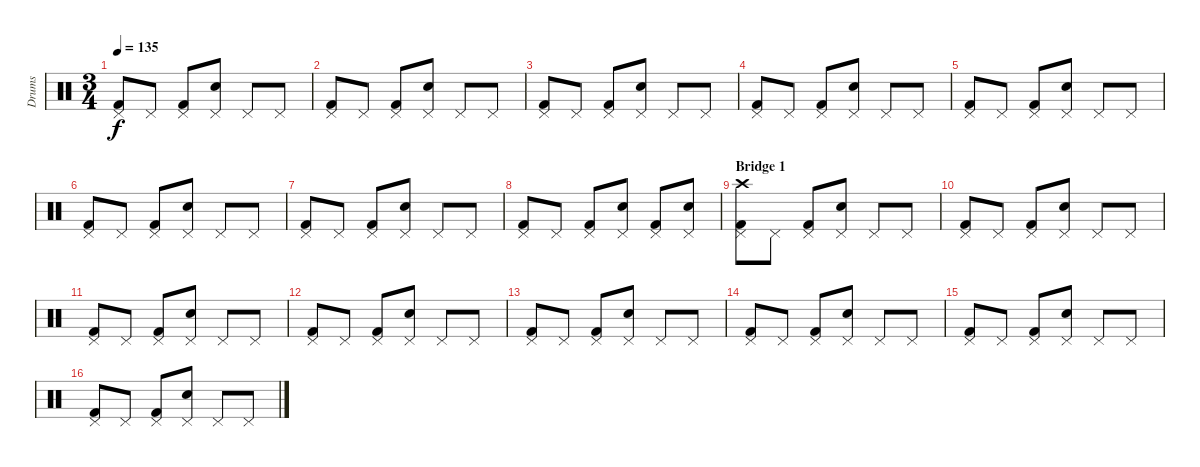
\track ("Drums" "Drums") {instrument percussion}
\staff {score}
\articulation defaults
\ts (3 4)
\tempo 135
\clef neutral
\ks c
("Pedal Hi-Hat (hit)" "Kick (hit) 2").8{dy f} "Pedal Hi-Hat (hit)".8 ("Pedal Hi-Hat (hit)" "Kick (hit) 2").8 ("Pedal Hi-Hat (hit)" "Snare (hit) 2").8 "Pedal Hi-Hat (hit)".8 "Pedal Hi-Hat (hit)".8 |
("Pedal Hi-Hat (hit)" "Kick (hit) 2").8 "Pedal Hi-Hat (hit)".8 ("Pedal Hi-Hat (hit)" "Kick (hit) 2").8 ("Pedal Hi-Hat (hit)" "Snare (hit) 2").8 "Pedal Hi-Hat (hit)".8 "Pedal Hi-Hat (hit)".8 |
("Pedal Hi-Hat (hit)" "Kick (hit) 2").8 "Pedal Hi-Hat (hit)".8 ("Pedal Hi-Hat (hit)" "Kick (hit) 2").8 ("Pedal Hi-Hat (hit)" "Snare (hit) 2").8 "Pedal Hi-Hat (hit)".8 "Pedal Hi-Hat (hit)".8 |
("Pedal Hi-Hat (hit)" "Kick (hit) 2").8 "Pedal Hi-Hat (hit)".8 ("Pedal Hi-Hat (hit)" "Kick (hit) 2").8 ("Pedal Hi-Hat (hit)" "Snare (hit) 2").8 "Pedal Hi-Hat (hit)".8 "Pedal Hi-Hat (hit)".8 |
("Pedal Hi-Hat (hit)" "Kick (hit) 2").8 "Pedal Hi-Hat (hit)".8 ("Pedal Hi-Hat (hit)" "Kick (hit) 2").8 ("Pedal Hi-Hat (hit)" "Snare (hit) 2").8 "Pedal Hi-Hat (hit)".8 "Pedal Hi-Hat (hit)".8 |
("Pedal Hi-Hat (hit)" "Kick (hit) 2").8 "Pedal Hi-Hat (hit)".8 ("Pedal Hi-Hat (hit)" "Kick (hit) 2").8 ("Pedal Hi-Hat (hit)" "Snare (hit) 2").8 "Pedal Hi-Hat (hit)".8 "Pedal Hi-Hat (hit)".8 |
("Pedal Hi-Hat (hit)" "Kick (hit) 2").8 "Pedal Hi-Hat (hit)".8 ("Pedal Hi-Hat (hit)" "Kick (hit) 2").8 ("Pedal Hi-Hat (hit)" "Snare (hit) 2").8 "Pedal Hi-Hat (hit)".8 "Pedal Hi-Hat (hit)".8 |
("Pedal Hi-Hat (hit)" "Kick (hit) 2").8 "Pedal Hi-Hat (hit)".8 ("Pedal Hi-Hat (hit)" "Kick (hit) 2").8 ("Pedal Hi-Hat (hit)" "Snare (hit) 2").8 ("Pedal Hi-Hat (hit)" "Kick (hit) 2").8 ("Pedal Hi-Hat (hit)" "Snare (hit) 2").8 |
\section ("" "Bridge 1")
("Pedal Hi-Hat (hit)" "Kick (hit) 2" "Crash high (hit)").8 "Pedal Hi-Hat (hit)".8 ("Pedal Hi-Hat (hit)" "Kick (hit) 2").8 ("Pedal Hi-Hat (hit)" "Snare (hit) 2").8 "Pedal Hi-Hat (hit)".8 "Pedal Hi-Hat (hit)".8 |
("Pedal Hi-Hat (hit)" "Kick (hit) 2").8 "Pedal Hi-Hat (hit)".8 ("Pedal Hi-Hat (hit)" "Kick (hit) 2").8 ("Pedal Hi-Hat (hit)" "Snare (hit) 2").8 "Pedal Hi-Hat (hit)".8 "Pedal Hi-Hat (hit)".8 |
("Pedal Hi-Hat (hit)" "Kick (hit) 2").8 "Pedal Hi-Hat (hit)".8 ("Pedal Hi-Hat (hit)" "Kick (hit) 2").8 ("Pedal Hi-Hat (hit)" "Snare (hit) 2").8 "Pedal Hi-Hat (hit)".8 "Pedal Hi-Hat (hit)".8 |
("Pedal Hi-Hat (hit)" "Kick (hit) 2").8 "Pedal Hi-Hat (hit)".8 ("Pedal Hi-Hat (hit)" "Kick (hit) 2").8 ("Pedal Hi-Hat (hit)" "Snare (hit) 2").8 "Pedal Hi-Hat (hit)".8 "Pedal Hi-Hat (hit)".8 |
("Pedal Hi-Hat (hit)" "Kick (hit) 2").8 "Pedal Hi-Hat (hit)".8 ("Pedal Hi-Hat (hit)" "Kick (hit) 2").8 ("Pedal Hi-Hat (hit)" "Snare (hit) 2").8 "Pedal Hi-Hat (hit)".8 "Pedal Hi-Hat (hit)".8 |
("Pedal Hi-Hat (hit)" "Kick (hit) 2").8 "Pedal Hi-Hat (hit)".8 ("Pedal Hi-Hat (hit)" "Kick (hit) 2").8 ("Pedal Hi-Hat (hit)" "Snare (hit) 2").8 "Pedal Hi-Hat (hit)".8 "Pedal Hi-Hat (hit)".8 |
("Pedal Hi-Hat (hit)" "Kick (hit) 2").8 "Pedal Hi-Hat (hit)".8 ("Pedal Hi-Hat (hit)" "Kick (hit) 2").8 ("Pedal Hi-Hat (hit)" "Snare (hit) 2").8 "Pedal Hi-Hat (hit)".8 "Pedal Hi-Hat (hit)".8 |
("Pedal Hi-Hat (hit)" "Kick (hit) 2").8 "Pedal Hi-Hat (hit)".8 ("Pedal Hi-Hat (hit)" "Kick (hit) 2").8 ("Pedal Hi-Hat (hit)" "Snare (hit) 2").8 "Pedal Hi-Hat (hit)".8 "Pedal Hi-Hat (hit)".8
